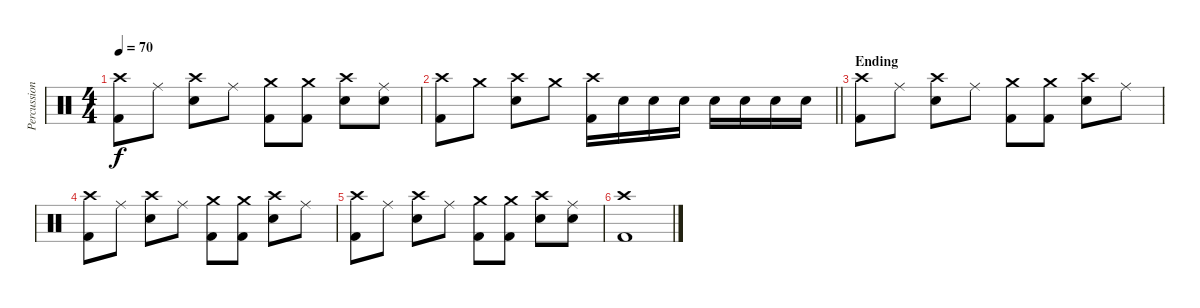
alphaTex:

\track ("Percussion" "Percussion") {instrument percussion}
\staff {score}
\articulation defaults
\ts (4 4)
\tempo 70
\clef neutral
\ks c
("Crash high (hit)" "Kick (hit) 2").8{dy f} "Ride (middle)".8 ("Crash high (hit)" "Snare (hit) 2").8 "Ride (middle)".8 ("Crash medium (hit)" "Kick (hit) 2").8 ("Crash medium (hit)" "Kick (hit) 2").8 ("Crash high (hit)" "Snare (hit) 2").8 ("Ride (middle)" "Snare (hit) 2").8 |
\barLineRight lightlight
("Crash high (hit)" "Kick (hit) 2").8 "Crash medium (hit)".8 ("Crash high (hit)" "Snare (hit) 2").8 "Crash medium (hit)".8 ("Crash high (hit)" "Kick (hit) 2").16 "Snare (hit) 2".16 "Snare (hit) 2".16 "Snare (hit) 2".16 "Snare (hit) 2".16 "Snare (hit) 2".16 "Snare (hit) 2".16 "Snare (hit) 2".16 |
\section ("" "Ending")
("Crash high (hit)" "Kick (hit) 2").8 "Ride (middle)".8 ("Crash high (hit)" "Snare (hit) 2").8 "Ride (middle)".8 ("Crash medium (hit)" "Kick (hit) 2").8 ("Crash medium (hit)" "Kick (hit) 2").8 ("Crash high (hit)" "Snare (hit) 2").8 "Ride (middle)".8 |
("Crash high (hit)" "Kick (hit) 2").8 "Ride (middle)".8 ("Crash high (hit)" "Snare (hit) 2").8 "Ride (middle)".8 ("Crash medium (hit)" "Kick (hit) 2").8 ("Crash medium (hit)" "Kick (hit) 2").8 ("Crash high (hit)" "Snare (hit) 2").8 "Ride (middle)".8 |
("Crash high (hit)" "Kick (hit) 2").8 "Ride (middle)".8 ("Crash high (hit)" "Snare (hit) 2").8 "Ride (middle)".8 ("Crash medium (hit)" "Kick (hit) 2").8 ("Crash medium (hit)" "Kick (hit) 2").8 ("Crash high (hit)" "Snare (hit) 2").8 ("Ride (middle)" "Snare (hit) 2").8 |
("Crash high (hit)" "Kick (hit) 2").1
